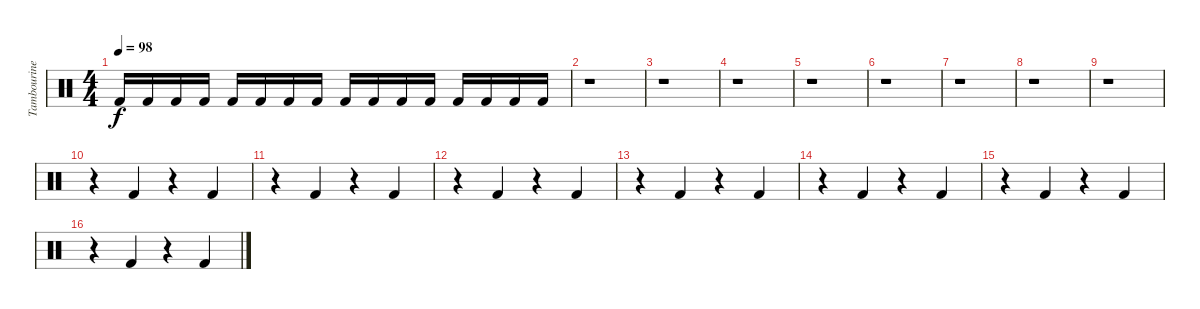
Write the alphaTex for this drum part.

\track ("Tambourine" "Tambourine") {instrument percussion}
\staff {score}
\articulation defaults
\ts (4 4)
\tempo 98
\clef neutral
\ks c "Kick (hit) 2".16{dy f} "Kick (hit) 2".16 "Kick (hit) 2".16 "Kick (hit) 2".16 "Kick (hit) 2".16 "Kick (hit) 2".16 "Kick (hit) 2".16 "Kick (hit) 2".16 "Kick (hit) 2".16 "Kick (hit) 2".16 "Kick (hit) 2".16 "Kick (hit) 2".16 "Kick (hit) 2".16 "Kick (hit) 2".16 "Kick (hit) 2".16 "Kick (hit) 2".16
|
r.1 |
r.1 |
r.1 |
r.1 |
r.1 |
r.1 |
r.1 |
r.1 |
r.4 "Kick (hit) 2".4 r.4 "Kick (hit) 2".4 |
r.4 "Kick (hit) 2".4 r.4 "Kick (hit) 2".4 |
r.4 "Kick (hit) 2".4 r.4 "Kick (hit) 2".4 |
r.4 "Kick (hit) 2".4 r.4 "Kick (hit) 2".4 |
r.4 "Kick (hit) 2".4 r.4 "Kick (hit) 2".4 |
r.4 "Kick (hit) 2".4 r.4 "Kick (hit) 2".4 |
r.4 "Kick (hit) 2".4 r.4 "Kick (hit) 2".4
